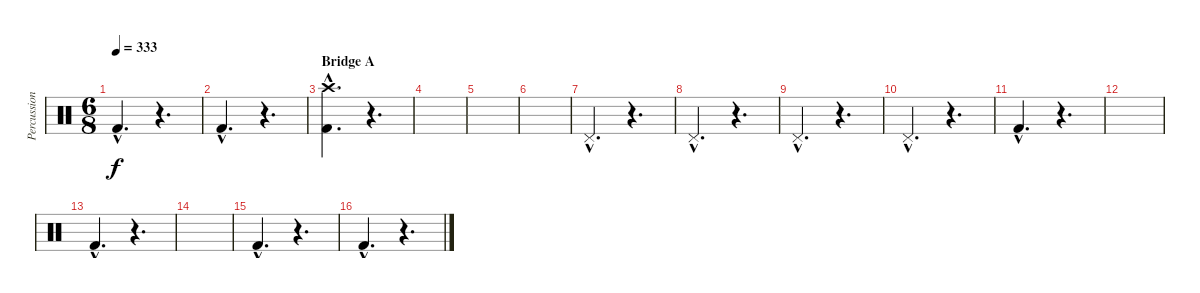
\track ("Percussion" "Percussion") {instrument percussion}
\staff {score}
\articulation defaults
\ts (6 8)
\tempo 333
\clef neutral
\ks c "Kick (hit) 2"{hac}.4{d dy f}
r.4{d} |
"Kick (hit) 2"{hac}.4{d} r.4{d} |
\section ("" "Bridge A")
("Crash high (hit)"{hac} "Kick (hit) 2"{hac}).4{d} r.4{d} |
|
|
|
"Pedal Hi-Hat (hit)"{hac}.4{d} r.4{d} |
"Pedal Hi-Hat (hit)"{hac}.4{d} r.4{d} |
"Pedal Hi-Hat (hit)"{hac}.4{d} r.4{d} |
"Pedal Hi-Hat (hit)"{hac}.4{d} r.4{d} |
"Kick (hit) 2"{hac}.4{d} r.4{d} |
|
"Kick (hit) 2"{hac}.4{d} r.4{d} |
|
"Kick (hit) 2"{hac}.4{d} r.4{d} |
"Kick (hit) 2"{hac}.4{d} r.4{d}
